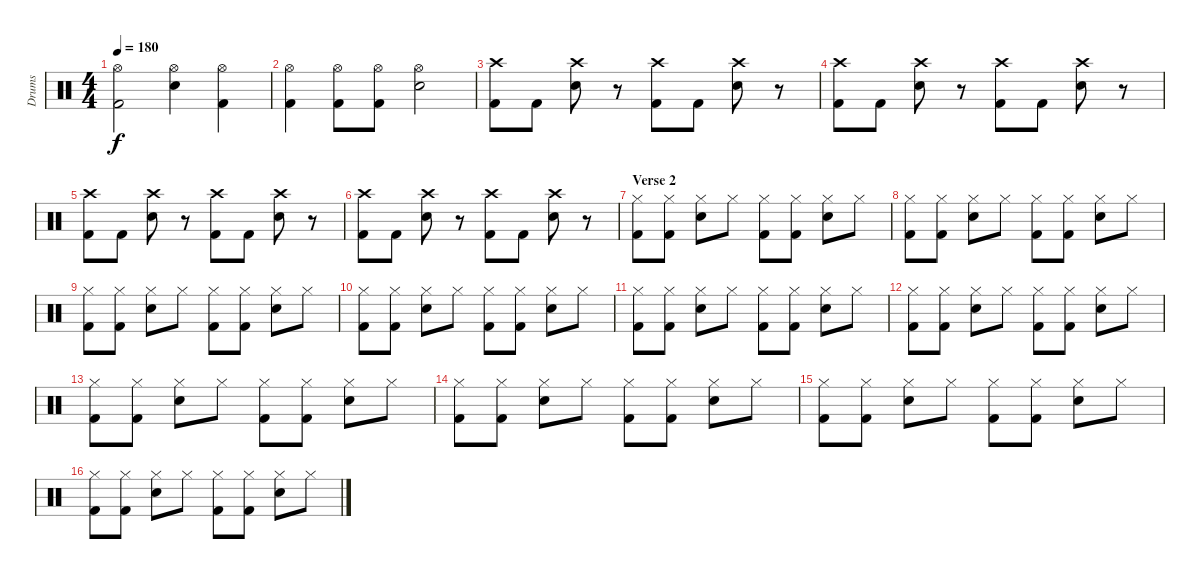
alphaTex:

\track ("Drums" "Drums") {instrument percussion}
\staff {score}
\articulation defaults
\ts (4 4)
\tempo 180
\clef neutral
\ks c
("Hi-Hat (open)" "Kick (hit) 2").2{dy f} ("Hi-Hat (open)" "Snare (hit) 2").4 ("Hi-Hat (open)" "Kick (hit) 2").4 |
("Hi-Hat (open)" "Kick (hit) 2").4 ("Hi-Hat (open)" "Kick (hit) 2").8 ("Hi-Hat (open)" "Kick (hit) 2").8 ("Hi-Hat (open)" "Snare (hit) 2").2 |
("Crash high (hit)" "Kick (hit) 2").8 "Kick (hit) 2".8 ("Crash high (hit)" "Snare (hit) 2").8 r.8 ("Crash high (hit)" "Kick (hit) 2").8 "Kick (hit) 2".8 ("Crash high (hit)" "Snare (hit) 2").8 r.8 |
("Crash high (hit)" "Kick (hit) 2").8 "Kick (hit) 2".8 ("Crash high (hit)" "Snare (hit) 2").8 r.8 ("Crash high (hit)" "Kick (hit) 2").8 "Kick (hit) 2".8 ("Crash high (hit)" "Snare (hit) 2").8 r.8 |
("Crash high (hit)" "Kick (hit) 2").8 "Kick (hit) 2".8 ("Crash high (hit)" "Snare (hit) 2").8 r.8 ("Crash high (hit)" "Kick (hit) 2").8 "Kick (hit) 2".8 ("Crash high (hit)" "Snare (hit) 2").8 r.8 |
("Crash high (hit)" "Kick (hit) 2").8 "Kick (hit) 2".8 ("Crash high (hit)" "Snare (hit) 2").8 r.8 ("Crash high (hit)" "Kick (hit) 2").8 "Kick (hit) 2".8 ("Crash high (hit)" "Snare (hit) 2").8 r.8 |
\section ("" "Verse 2")
("Hi-Hat (closed)" "Kick (hit) 2").8 ("Hi-Hat (closed)" "Kick (hit) 2").8 ("Hi-Hat (closed)" "Snare (hit) 2").8 "Hi-Hat (closed)".8 ("Hi-Hat (closed)" "Kick (hit) 2").8 ("Hi-Hat (closed)" "Kick (hit) 2").8 ("Hi-Hat (closed)" "Snare (hit) 2").8 "Hi-Hat (closed)".8 |
("Hi-Hat (closed)" "Kick (hit) 2").8 ("Hi-Hat (closed)" "Kick (hit) 2").8 ("Hi-Hat (closed)" "Snare (hit) 2").8 "Hi-Hat (closed)".8 ("Hi-Hat (closed)" "Kick (hit) 2").8 ("Hi-Hat (closed)" "Kick (hit) 2").8 ("Hi-Hat (closed)" "Snare (hit) 2").8 "Hi-Hat (closed)".8 |
("Hi-Hat (closed)" "Kick (hit) 2").8 ("Hi-Hat (closed)" "Kick (hit) 2").8 ("Hi-Hat (closed)" "Snare (hit) 2").8 "Hi-Hat (closed)".8 ("Hi-Hat (closed)" "Kick (hit) 2").8 ("Hi-Hat (closed)" "Kick (hit) 2").8 ("Hi-Hat (closed)" "Snare (hit) 2").8 "Hi-Hat (closed)".8 |
("Hi-Hat (closed)" "Kick (hit) 2").8 ("Hi-Hat (closed)" "Kick (hit) 2").8 ("Hi-Hat (closed)" "Snare (hit) 2").8 "Hi-Hat (closed)".8 ("Hi-Hat (closed)" "Kick (hit) 2").8 ("Hi-Hat (closed)" "Kick (hit) 2").8 ("Hi-Hat (closed)" "Snare (hit) 2").8 "Hi-Hat (closed)".8 |
("Hi-Hat (closed)" "Kick (hit) 2").8 ("Hi-Hat (closed)" "Kick (hit) 2").8 ("Hi-Hat (closed)" "Snare (hit) 2").8 "Hi-Hat (closed)".8 ("Hi-Hat (closed)" "Kick (hit) 2").8 ("Hi-Hat (closed)" "Kick (hit) 2").8 ("Hi-Hat (closed)" "Snare (hit) 2").8 "Hi-Hat (closed)".8 |
("Hi-Hat (closed)" "Kick (hit) 2").8 ("Hi-Hat (closed)" "Kick (hit) 2").8 ("Hi-Hat (closed)" "Snare (hit) 2").8 "Hi-Hat (closed)".8 ("Hi-Hat (closed)" "Kick (hit) 2").8 ("Hi-Hat (closed)" "Kick (hit) 2").8 ("Hi-Hat (closed)" "Snare (hit) 2").8 "Hi-Hat (closed)".8 |
("Hi-Hat (closed)" "Kick (hit) 2").8 ("Hi-Hat (closed)" "Kick (hit) 2").8 ("Hi-Hat (closed)" "Snare (hit) 2").8 "Hi-Hat (closed)".8 ("Hi-Hat (closed)" "Kick (hit) 2").8 ("Hi-Hat (closed)" "Kick (hit) 2").8 ("Hi-Hat (closed)" "Snare (hit) 2").8 "Hi-Hat (closed)".8 |
("Hi-Hat (closed)" "Kick (hit) 2").8 ("Hi-Hat (closed)" "Kick (hit) 2").8 ("Hi-Hat (closed)" "Snare (hit) 2").8 "Hi-Hat (closed)".8 ("Hi-Hat (closed)" "Kick (hit) 2").8 ("Hi-Hat (closed)" "Kick (hit) 2").8 ("Hi-Hat (closed)" "Snare (hit) 2").8 "Hi-Hat (closed)".8 |
("Hi-Hat (closed)" "Kick (hit) 2").8 ("Hi-Hat (closed)" "Kick (hit) 2").8 ("Hi-Hat (closed)" "Snare (hit) 2").8 "Hi-Hat (closed)".8 ("Hi-Hat (closed)" "Kick (hit) 2").8 ("Hi-Hat (closed)" "Kick (hit) 2").8 ("Hi-Hat (closed)" "Snare (hit) 2").8 "Hi-Hat (closed)".8 |
("Hi-Hat (closed)" "Kick (hit) 2").8 ("Hi-Hat (closed)" "Kick (hit) 2").8 ("Hi-Hat (closed)" "Snare (hit) 2").8 "Hi-Hat (closed)".8 ("Hi-Hat (closed)" "Kick (hit) 2").8 ("Hi-Hat (closed)" "Kick (hit) 2").8 ("Hi-Hat (closed)" "Snare (hit) 2").8 "Hi-Hat (closed)".8
